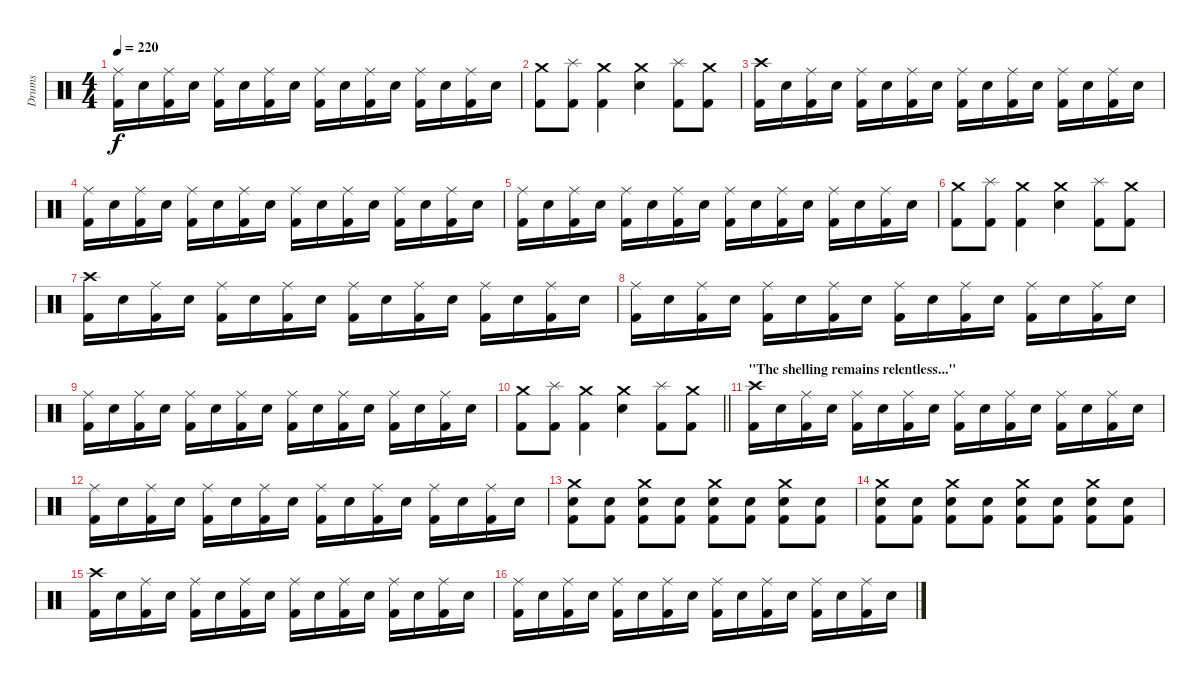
\track ("Drums" "Drums") {instrument percussion}
\staff {score}
\articulation defaults
\ts (4 4)
\tempo 220
\clef neutral
\ks c
("Ride (middle)" "Kick (hit) 2").16{dy f} "Electric Snare (hit)".16 ("Ride (middle)" "Kick (hit) 2").16 "Electric Snare (hit)".16 ("Ride (middle)" "Kick (hit) 2").16 "Electric Snare (hit)".16 ("Ride (middle)" "Kick (hit) 2").16 "Electric Snare (hit)".16 ("Ride (middle)" "Kick (hit) 2").16 "Electric Snare (hit)".16 ("Ride (middle)" "Kick (hit) 2").16 "Electric Snare (hit)".16 ("Ride (middle)" "Kick (hit) 2").16 "Electric Snare (hit)".16 ("Ride (middle)" "Kick (hit) 2").16 "Electric Snare (hit)".16 |
("Crash medium (hit)" "Kick (hit) 2").8 ("Splash (hit)" "Kick (hit) 2").8 ("Crash medium (hit)" "Kick (hit) 2").4 ("Crash medium (hit)" "Electric Snare (hit)").4 ("Splash (hit)" "Kick (hit) 2").8 ("Crash medium (hit)" "Kick (hit) 2").8 |
("Crash high (hit)" "Kick (hit) 2").16 "Electric Snare (hit)".16 ("Ride (middle)" "Kick (hit) 2").16 "Electric Snare (hit)".16 ("Ride (middle)" "Kick (hit) 2").16 "Electric Snare (hit)".16 ("Ride (middle)" "Kick (hit) 2").16 "Electric Snare (hit)".16 ("Ride (middle)" "Kick (hit) 2").16 "Electric Snare (hit)".16 ("Ride (middle)" "Kick (hit) 2").16 "Electric Snare (hit)".16 ("Ride (middle)" "Kick (hit) 2").16 "Electric Snare (hit)".16 ("Ride (middle)" "Kick (hit) 2").16 "Electric Snare (hit)".16 |
("Ride (middle)" "Kick (hit) 2").16 "Electric Snare (hit)".16 ("Ride (middle)" "Kick (hit) 2").16 "Electric Snare (hit)".16 ("Ride (middle)" "Kick (hit) 2").16 "Electric Snare (hit)".16 ("Ride (middle)" "Kick (hit) 2").16 "Electric Snare (hit)".16 ("Ride (middle)" "Kick (hit) 2").16 "Electric Snare (hit)".16 ("Ride (middle)" "Kick (hit) 2").16 "Electric Snare (hit)".16 ("Ride (middle)" "Kick (hit) 2").16 "Electric Snare (hit)".16 ("Ride (middle)" "Kick (hit) 2").16 "Electric Snare (hit)".16 |
("Ride (middle)" "Kick (hit) 2").16 "Electric Snare (hit)".16 ("Ride (middle)" "Kick (hit) 2").16 "Electric Snare (hit)".16 ("Ride (middle)" "Kick (hit) 2").16 "Electric Snare (hit)".16 ("Ride (middle)" "Kick (hit) 2").16 "Electric Snare (hit)".16 ("Ride (middle)" "Kick (hit) 2").16 "Electric Snare (hit)".16 ("Ride (middle)" "Kick (hit) 2").16 "Electric Snare (hit)".16 ("Ride (middle)" "Kick (hit) 2").16 "Electric Snare (hit)".16 ("Ride (middle)" "Kick (hit) 2").16 "Electric Snare (hit)".16 |
("Crash medium (hit)" "Kick (hit) 2").8 ("Splash (hit)" "Kick (hit) 2").8 ("Crash medium (hit)" "Kick (hit) 2").4 ("Crash medium (hit)" "Electric Snare (hit)").4 ("Splash (hit)" "Kick (hit) 2").8 ("Crash medium (hit)" "Kick (hit) 2").8 |
("Crash high (hit)" "Kick (hit) 2").16 "Electric Snare (hit)".16 ("Ride (middle)" "Kick (hit) 2").16 "Electric Snare (hit)".16 ("Ride (middle)" "Kick (hit) 2").16 "Electric Snare (hit)".16 ("Ride (middle)" "Kick (hit) 2").16 "Electric Snare (hit)".16 ("Ride (middle)" "Kick (hit) 2").16 "Electric Snare (hit)".16 ("Ride (middle)" "Kick (hit) 2").16 "Electric Snare (hit)".16 ("Ride (middle)" "Kick (hit) 2").16 "Electric Snare (hit)".16 ("Ride (middle)" "Kick (hit) 2").16 "Electric Snare (hit)".16 |
("Ride (middle)" "Kick (hit) 2").16 "Electric Snare (hit)".16 ("Ride (middle)" "Kick (hit) 2").16 "Electric Snare (hit)".16 ("Ride (middle)" "Kick (hit) 2").16 "Electric Snare (hit)".16 ("Ride (middle)" "Kick (hit) 2").16 "Electric Snare (hit)".16 ("Ride (middle)" "Kick (hit) 2").16 "Electric Snare (hit)".16 ("Ride (middle)" "Kick (hit) 2").16 "Electric Snare (hit)".16 ("Ride (middle)" "Kick (hit) 2").16 "Electric Snare (hit)".16 ("Ride (middle)" "Kick (hit) 2").16 "Electric Snare (hit)".16 |
("Ride (middle)" "Kick (hit) 2").16 "Electric Snare (hit)".16 ("Ride (middle)" "Kick (hit) 2").16 "Electric Snare (hit)".16 ("Ride (middle)" "Kick (hit) 2").16 "Electric Snare (hit)".16 ("Ride (middle)" "Kick (hit) 2").16 "Electric Snare (hit)".16 ("Ride (middle)" "Kick (hit) 2").16 "Electric Snare (hit)".16 ("Ride (middle)" "Kick (hit) 2").16 "Electric Snare (hit)".16 ("Ride (middle)" "Kick (hit) 2").16 "Electric Snare (hit)".16 ("Ride (middle)" "Kick (hit) 2").16 "Electric Snare (hit)".16 |
\barLineRight lightlight
("Crash medium (hit)" "Kick (hit) 2").8 ("Splash (hit)" "Kick (hit) 2").8 ("Crash medium (hit)" "Kick (hit) 2").4 ("Crash medium (hit)" "Electric Snare (hit)").4 ("Splash (hit)" "Kick (hit) 2").8 ("Crash medium (hit)" "Kick (hit) 2").8 |
\section ("" "\"The shelling remains relentless...\"")
("Crash high (hit)" "Kick (hit) 2").16 "Electric Snare (hit)".16 ("Ride (middle)" "Kick (hit) 2").16 "Electric Snare (hit)".16 ("Ride (middle)" "Kick (hit) 2").16 "Electric Snare (hit)".16 ("Ride (middle)" "Kick (hit) 2").16 "Electric Snare (hit)".16 ("Ride (middle)" "Kick (hit) 2").16 "Electric Snare (hit)".16 ("Ride (middle)" "Kick (hit) 2").16 "Electric Snare (hit)".16 ("Ride (middle)" "Kick (hit) 2").16 "Electric Snare (hit)".16 ("Ride (middle)" "Kick (hit) 2").16 "Electric Snare (hit)".16 |
("Ride (middle)" "Kick (hit) 2").16 "Electric Snare (hit)".16 ("Ride (middle)" "Kick (hit) 2").16 "Electric Snare (hit)".16 ("Ride (middle)" "Kick (hit) 2").16 "Electric Snare (hit)".16 ("Ride (middle)" "Kick (hit) 2").16 "Electric Snare (hit)".16 ("Ride (middle)" "Kick (hit) 2").16 "Electric Snare (hit)".16 ("Ride (middle)" "Kick (hit) 2").16 "Electric Snare (hit)".16 ("Ride (middle)" "Kick (hit) 2").16 "Electric Snare (hit)".16 ("Ride (middle)" "Kick (hit) 2").16 "Electric Snare (hit)".16 |
("Crash medium (hit)" "Electric Snare (hit)" "Kick (hit) 2").8 ("Electric Snare (hit)" "Kick (hit) 2").8 ("Crash medium (hit)" "Electric Snare (hit)" "Kick (hit) 2").8 ("Electric Snare (hit)" "Kick (hit) 2").8 ("Crash medium (hit)" "Electric Snare (hit)" "Kick (hit) 2").8 ("Electric Snare (hit)" "Kick (hit) 2").8 ("Crash medium (hit)" "Electric Snare (hit)" "Kick (hit) 2").8 ("Electric Snare (hit)" "Kick (hit) 2").8 |
("Crash medium (hit)" "Electric Snare (hit)" "Kick (hit) 2").8 ("Electric Snare (hit)" "Kick (hit) 2").8 ("Crash medium (hit)" "Electric Snare (hit)" "Kick (hit) 2").8 ("Electric Snare (hit)" "Kick (hit) 2").8 ("Crash medium (hit)" "Electric Snare (hit)" "Kick (hit) 2").8 ("Electric Snare (hit)" "Kick (hit) 2").8 ("Crash medium (hit)" "Electric Snare (hit)" "Kick (hit) 2").8 ("Electric Snare (hit)" "Kick (hit) 2").8 |
("Crash high (hit)" "Kick (hit) 2").16 "Electric Snare (hit)".16 ("Ride (middle)" "Kick (hit) 2").16 "Electric Snare (hit)".16 ("Ride (middle)" "Kick (hit) 2").16 "Electric Snare (hit)".16 ("Ride (middle)" "Kick (hit) 2").16 "Electric Snare (hit)".16 ("Ride (middle)" "Kick (hit) 2").16 "Electric Snare (hit)".16 ("Ride (middle)" "Kick (hit) 2").16 "Electric Snare (hit)".16 ("Ride (middle)" "Kick (hit) 2").16 "Electric Snare (hit)".16 ("Ride (middle)" "Kick (hit) 2").16 "Electric Snare (hit)".16 |
("Ride (middle)" "Kick (hit) 2").16 "Electric Snare (hit)".16 ("Ride (middle)" "Kick (hit) 2").16 "Electric Snare (hit)".16 ("Ride (middle)" "Kick (hit) 2").16 "Electric Snare (hit)".16 ("Ride (middle)" "Kick (hit) 2").16 "Electric Snare (hit)".16 ("Ride (middle)" "Kick (hit) 2").16 "Electric Snare (hit)".16 ("Ride (middle)" "Kick (hit) 2").16 "Electric Snare (hit)".16 ("Ride (middle)" "Kick (hit) 2").16 "Electric Snare (hit)".16 ("Ride (middle)" "Kick (hit) 2").16 "Electric Snare (hit)".16
